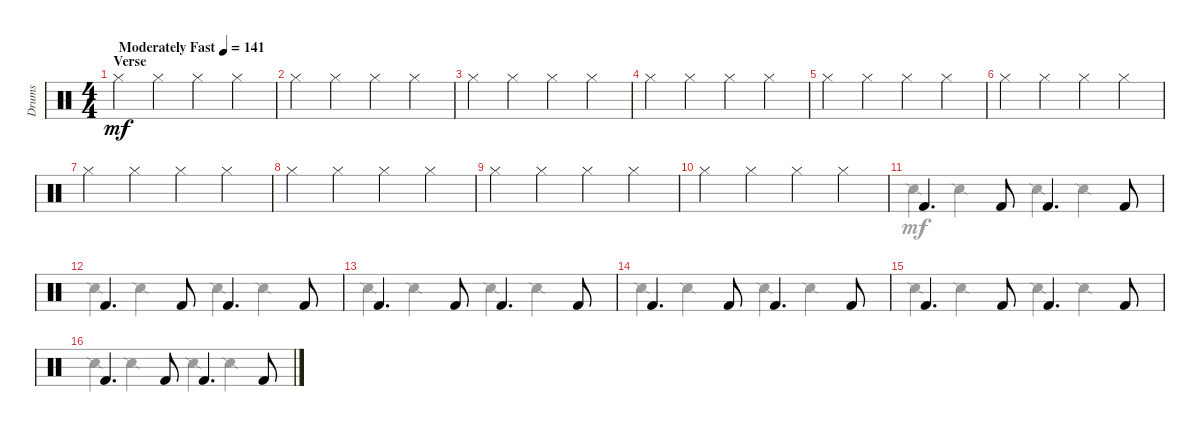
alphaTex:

\track ("Drums" "Drums") {instrument percussion}
\staff {score}
\articulation defaults
\voice
\ts (4 4)
\section ("" "Verse")
\tempo (141 "Moderately Fast")
\clef neutral
\ks c "Hi-Hat (closed)".4{dy mf} "Hi-Hat (closed)".4 "Hi-Hat (closed)".4 "Hi-Hat (closed)".4
|
"Hi-Hat (closed)".4 "Hi-Hat (closed)".4 "Hi-Hat (closed)".4 "Hi-Hat (closed)".4 |
"Hi-Hat (closed)".4 "Hi-Hat (closed)".4 "Hi-Hat (closed)".4 "Hi-Hat (closed)".4 |
"Hi-Hat (closed)".4 "Hi-Hat (closed)".4 "Hi-Hat (closed)".4 "Hi-Hat (closed)".4 |
"Hi-Hat (closed)".4 "Hi-Hat (closed)".4 "Hi-Hat (closed)".4 "Hi-Hat (closed)".4 |
"Hi-Hat (closed)".4 "Hi-Hat (closed)".4 "Hi-Hat (closed)".4 "Hi-Hat (closed)".4 |
"Hi-Hat (closed)".4 "Hi-Hat (closed)".4 "Hi-Hat (closed)".4 "Hi-Hat (closed)".4 |
"Hi-Hat (closed)".4 "Hi-Hat (closed)".4 "Hi-Hat (closed)".4 "Hi-Hat (closed)".4 |
"Hi-Hat (closed)".4 "Hi-Hat (closed)".4 "Hi-Hat (closed)".4 "Hi-Hat (closed)".4 |
"Hi-Hat (closed)".4 "Hi-Hat (closed)".4 "Hi-Hat (closed)".4 "Hi-Hat (closed)".4 |
"Kick (hit) 2".4{d} "Kick (hit) 2".8 "Kick (hit) 2".4{d} "Kick (hit) 2".8 |
"Kick (hit) 2".4{d} "Kick (hit) 2".8 "Kick (hit) 2".4{d} "Kick (hit) 2".8 |
"Kick (hit) 2".4{d} "Kick (hit) 2".8 "Kick (hit) 2".4{d} "Kick (hit) 2".8 |
"Kick (hit) 2".4{d} "Kick (hit) 2".8 "Kick (hit) 2".4{d} "Kick (hit) 2".8 |
"Kick (hit) 2".4{d} "Kick (hit) 2".8 "Kick (hit) 2".4{d} "Kick (hit) 2".8 |
"Kick (hit) 2".4{d} "Kick (hit) 2".8 "Kick (hit) 2".4{d} "Kick (hit) 2".8
\voice
\clef neutral
\ottava regular
\simile none
\ks c
|
|
|
|
|
|
|
|
|
|
"Snare (side stick) 2".4 "Snare (side stick) 2".4 "Snare (side stick) 2".4 "Snare (side stick) 2".4 |
"Snare (side stick) 2".4 "Snare (side stick) 2".4 "Snare (side stick) 2".4 "Snare (side stick) 2".4 |
"Snare (side stick) 2".4 "Snare (side stick) 2".4 "Snare (side stick) 2".4 "Snare (side stick) 2".4 |
"Snare (side stick) 2".4 "Snare (side stick) 2".4 "Snare (side stick) 2".4 "Snare (side stick) 2".4 |
"Snare (side stick) 2".4 "Snare (side stick) 2".4 "Snare (side stick) 2".4 "Snare (side stick) 2".4 |
"Snare (side stick) 2".4 "Snare (side stick) 2".4 "Snare (side stick) 2".4 "Snare (side stick) 2".4
